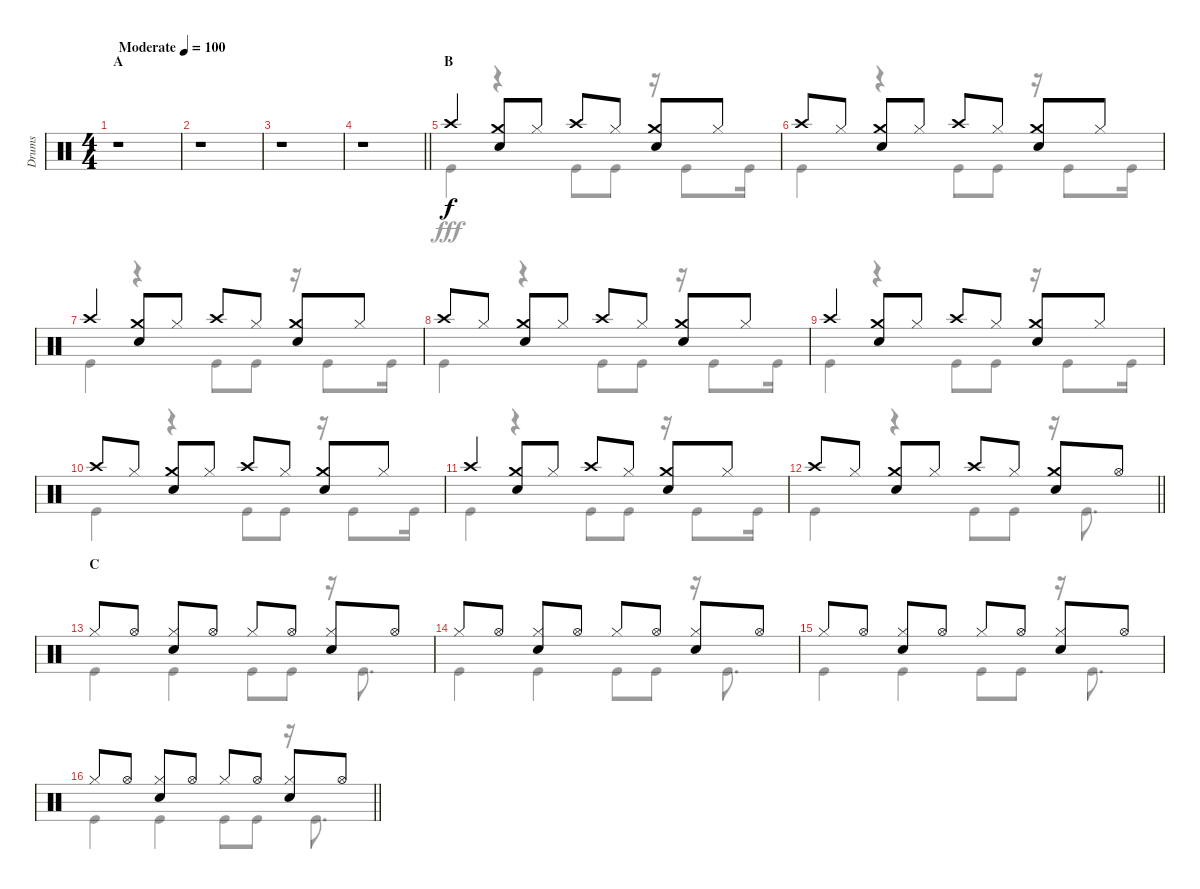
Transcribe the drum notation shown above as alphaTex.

\track ("Drums" "Drums") {instrument percussion}
\staff {score}
\articulation defaults
\voice
\ts (4 4)
\section ("" "A")
\tempo (100 "Moderate")
\clef neutral
\ks c
r.1{dy f} |
r.1 |
r.1 |
\barLineRight lightlight
r.1 |
\section ("" "B")
"Crash high (hit)".4 ("Crash medium (hit)" "Snare (hit) 2").8 "Hi-Hat (closed)".8 "Crash high (hit)".8 "Hi-Hat (closed)".8 ("Crash medium (hit)" "Snare (hit) 2").8 "Hi-Hat (closed)".8 |
"Crash high (hit)".8 "Hi-Hat (closed)".8 ("Crash medium (hit)" "Snare (hit) 2").8 "Hi-Hat (closed)".8 "Crash high (hit)".8 "Hi-Hat (closed)".8 ("Crash medium (hit)" "Snare (hit) 2").8 "Hi-Hat (closed)".8 |
"Crash high (hit)".4 ("Crash medium (hit)" "Snare (hit) 2").8 "Hi-Hat (closed)".8 "Crash high (hit)".8 "Hi-Hat (closed)".8 ("Crash medium (hit)" "Snare (hit) 2").8 "Hi-Hat (closed)".8 |
"Crash high (hit)".8 "Hi-Hat (closed)".8 ("Crash medium (hit)" "Snare (hit) 2").8 "Hi-Hat (closed)".8 "Crash high (hit)".8 "Hi-Hat (closed)".8 ("Crash medium (hit)" "Snare (hit) 2").8 "Hi-Hat (closed)".8 |
"Crash high (hit)".4 ("Crash medium (hit)" "Snare (hit) 2").8 "Hi-Hat (closed)".8 "Crash high (hit)".8 "Hi-Hat (closed)".8 ("Crash medium (hit)" "Snare (hit) 2").8 "Hi-Hat (closed)".8 |
"Crash high (hit)".8 "Hi-Hat (closed)".8 ("Crash medium (hit)" "Snare (hit) 2").8 "Hi-Hat (closed)".8 "Crash high (hit)".8 "Hi-Hat (closed)".8 ("Crash medium (hit)" "Snare (hit) 2").8 "Hi-Hat (closed)".8 |
"Crash high (hit)".4 ("Crash medium (hit)" "Snare (hit) 2").8 "Hi-Hat (closed)".8 "Crash high (hit)".8 "Hi-Hat (closed)".8 ("Crash medium (hit)" "Snare (hit) 2").8 "Hi-Hat (closed)".8 |
\barLineRight lightlight "Crash high (hit)".8 "Hi-Hat (closed)".8
("Crash medium (hit)" "Snare (hit) 2").8 "Hi-Hat (closed)".8 "Crash high (hit)".8 "Hi-Hat (closed)".8 ("Crash medium (hit)" "Snare (hit) 2").8 "Hi-Hat (open)".8 |
\section ("" "C")
"Hi-Hat (closed)".8 "Hi-Hat (open)".8 ("Hi-Hat (closed)" "Snare (hit) 2").8 "Hi-Hat (open)".8 "Hi-Hat (closed)".8 "Hi-Hat (open)".8 ("Hi-Hat (closed)" "Snare (hit) 2").8 "Hi-Hat (open)".8 |
"Hi-Hat (closed)".8 "Hi-Hat (open)".8 ("Hi-Hat (closed)" "Snare (hit) 2").8 "Hi-Hat (open)".8 "Hi-Hat (closed)".8 "Hi-Hat (open)".8 ("Hi-Hat (closed)" "Snare (hit) 2").8 "Hi-Hat (open)".8 |
"Hi-Hat (closed)".8 "Hi-Hat (open)".8 ("Hi-Hat (closed)" "Snare (hit) 2").8 "Hi-Hat (open)".8 "Hi-Hat (closed)".8 "Hi-Hat (open)".8 ("Hi-Hat (closed)" "Snare (hit) 2").8 "Hi-Hat (open)".8 |
\barLineRight lightlight "Hi-Hat (closed)".8 "Hi-Hat (open)".8
("Hi-Hat (closed)" "Snare (hit) 2").8 "Hi-Hat (open)".8 "Hi-Hat (closed)".8 "Hi-Hat (open)".8 ("Hi-Hat (closed)" "Snare (hit) 2").8 "Hi-Hat (open)".8
\voice
\clef neutral
\ottava regular
\simile none
\ks c
r.1{dy fff} |
r.1 |
r.1 |
\barLineRight lightlight
r.1 |
"Kick (hit)".4 r.4 "Kick (hit)".8 "Kick (hit)".8 r.16 "Kick (hit)".8 "Kick (hit)".16 |
"Kick (hit)".4 r.4 "Kick (hit)".8 "Kick (hit)".8 r.16 "Kick (hit)".8 "Kick (hit)".16 |
"Kick (hit)".4 r.4 "Kick (hit)".8 "Kick (hit)".8 r.16 "Kick (hit)".8 "Kick (hit)".16 |
"Kick (hit)".4 r.4 "Kick (hit)".8 "Kick (hit)".8 r.16 "Kick (hit)".8 "Kick (hit)".16 |
"Kick (hit)".4 r.4 "Kick (hit)".8 "Kick (hit)".8 r.16 "Kick (hit)".8 "Kick (hit)".16 |
"Kick (hit)".4 r.4 "Kick (hit)".8 "Kick (hit)".8 r.16 "Kick (hit)".8 "Kick (hit)".16 |
"Kick (hit)".4 r.4 "Kick (hit)".8 "Kick (hit)".8 r.16 "Kick (hit)".8 "Kick (hit)".16 |
\barLineRight lightlight "Kick (hit)".4
r.4 "Kick (hit)".8 "Kick (hit)".8 r.16 "Kick (hit)".8{d} |
"Kick (hit)".4 "Kick (hit)".4 "Kick (hit)".8 "Kick (hit)".8 r.16 "Kick (hit)".8{d} |
"Kick (hit)".4 "Kick (hit)".4 "Kick (hit)".8 "Kick (hit)".8 r.16 "Kick (hit)".8{d} |
"Kick (hit)".4 "Kick (hit)".4 "Kick (hit)".8 "Kick (hit)".8 r.16 "Kick (hit)".8{d} |
\barLineRight lightlight "Kick (hit)".4 "Kick (hit)".4 "Kick (hit)".8 "Kick (hit)".8
r.16 "Kick (hit)".8{d}
